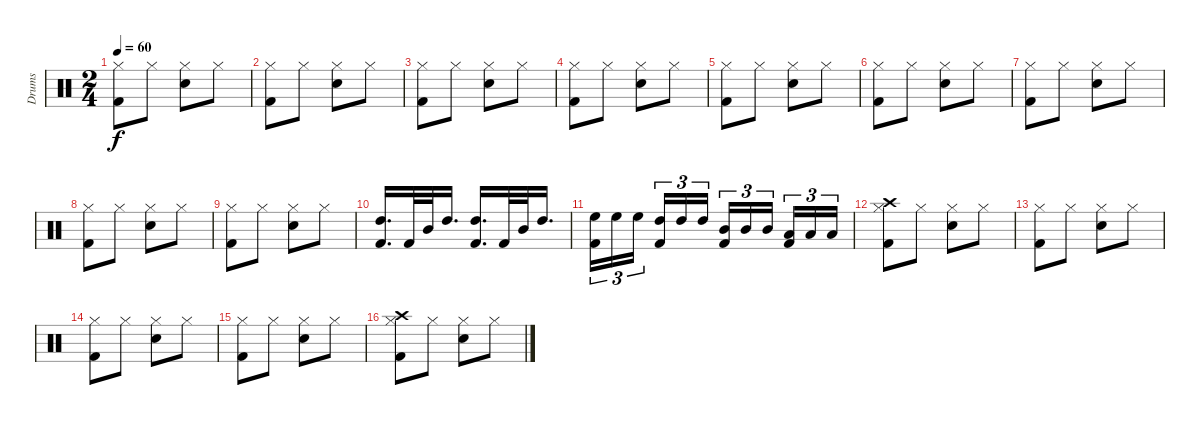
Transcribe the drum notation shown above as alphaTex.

\track ("Drums" "Drums") {instrument percussion}
\staff {score}
\articulation defaults
\ts (2 4)
\tempo 60
\clef neutral
\ks c
("Hi-Hat (closed)" "Kick (hit) 2").8{dy f} "Hi-Hat (closed)".8 ("Hi-Hat (closed)" "Snare (hit) 2").8 "Hi-Hat (closed)".8 |
("Hi-Hat (closed)" "Kick (hit) 2").8 "Hi-Hat (closed)".8 ("Hi-Hat (closed)" "Snare (hit) 2").8 "Hi-Hat (closed)".8 |
("Hi-Hat (closed)" "Kick (hit) 2").8 "Hi-Hat (closed)".8 ("Hi-Hat (closed)" "Snare (hit) 2").8 "Hi-Hat (closed)".8 |
("Hi-Hat (closed)" "Kick (hit) 2").8 "Hi-Hat (closed)".8 ("Hi-Hat (closed)" "Snare (hit) 2").8 "Hi-Hat (closed)".8 |
("Hi-Hat (closed)" "Kick (hit) 2").8 "Hi-Hat (closed)".8 ("Hi-Hat (closed)" "Snare (hit) 2").8 "Hi-Hat (closed)".8 |
("Hi-Hat (closed)" "Kick (hit) 2").8 "Hi-Hat (closed)".8 ("Hi-Hat (closed)" "Snare (hit) 2").8 "Hi-Hat (closed)".8 |
("Hi-Hat (closed)" "Kick (hit) 2").8 "Hi-Hat (closed)".8 ("Hi-Hat (closed)" "Snare (hit) 2").8 "Hi-Hat (closed)".8 |
("Hi-Hat (closed)" "Kick (hit) 2").8 "Hi-Hat (closed)".8 ("Hi-Hat (closed)" "Snare (hit) 2").8 "Hi-Hat (closed)".8 |
("Hi-Hat (closed)" "Kick (hit) 2").8 "Hi-Hat (closed)".8 ("Hi-Hat (closed)" "Snare (hit) 2").8 "Hi-Hat (closed)".8 |
("High Tom (hit)" "Kick (hit) 2").16{d} "Kick (hit) 2".32 "Mid Tom (hit)".32 "High Tom (hit)".16{d} ("High Tom (hit)" "Kick (hit) 2").16{d} "Kick (hit) 2".32 "Mid Tom (hit)".32 "High Tom (hit)".16{d} |
("Kick (hit) 2" "High Floor Tom (hit)").16{tu (3 2)} "High Floor Tom (hit)".16{tu (3 2)} "High Floor Tom (hit)".16{tu (3 2) beam splitsecondary} ("Kick (hit) 2" "High Tom (hit)").16{tu (3 2)} "High Tom (hit)".16{tu (3 2)} "High Tom (hit)".16{tu (3 2)} ("Kick (hit) 2" "Mid Tom (hit)").16{tu (3 2)} "Mid Tom (hit)".16{tu (3 2)} "Mid Tom (hit)".16{tu (3 2) beam splitsecondary} ("Kick (hit) 2" "Low Tom (hit)").16{tu (3 2)} "Low Tom (hit)".16{tu (3 2)} "Low Tom (hit)".16{tu (3 2)} |
("Hi-Hat (closed)" "Crash high (hit)" "Kick (hit) 2").8 "Hi-Hat (closed)".8 ("Hi-Hat (closed)" "Snare (hit) 2").8 "Hi-Hat (closed)".8 |
("Hi-Hat (closed)" "Kick (hit) 2").8 "Hi-Hat (closed)".8 ("Hi-Hat (closed)" "Snare (hit) 2").8 "Hi-Hat (closed)".8 |
("Hi-Hat (closed)" "Kick (hit) 2").8 "Hi-Hat (closed)".8 ("Hi-Hat (closed)" "Snare (hit) 2").8 "Hi-Hat (closed)".8 |
("Hi-Hat (closed)" "Kick (hit) 2").8 "Hi-Hat (closed)".8 ("Hi-Hat (closed)" "Snare (hit) 2").8 "Hi-Hat (closed)".8 |
("Hi-Hat (closed)" "Crash high (hit)" "Kick (hit) 2").8 "Hi-Hat (closed)".8 ("Hi-Hat (closed)" "Snare (hit) 2").8 "Hi-Hat (closed)".8
